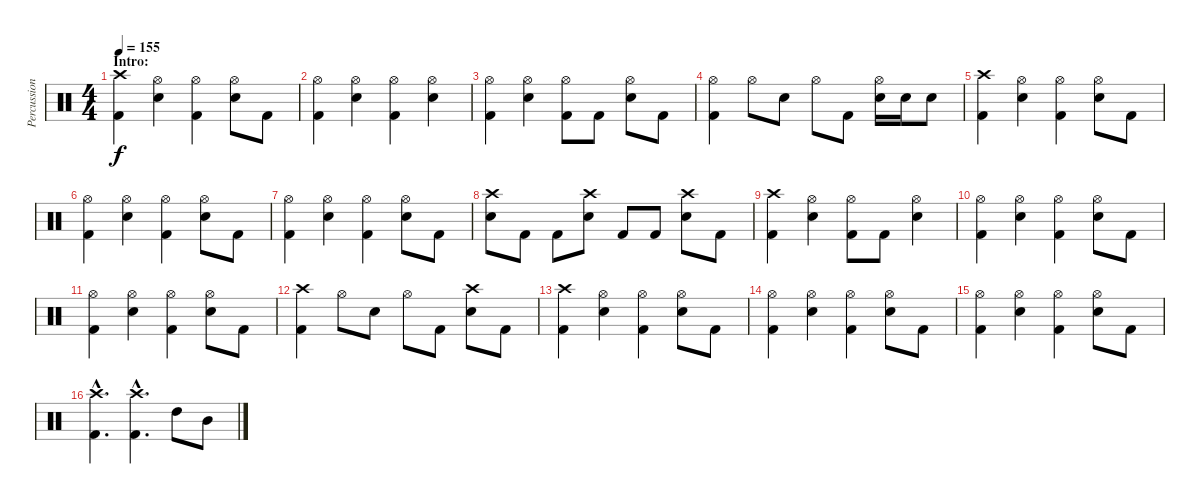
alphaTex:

\track ("Percussion" "Percussion") {instrument percussion}
\staff {score}
\articulation defaults
\ts (4 4)
\section ("" "Intro:")
\tempo 155
\clef neutral
\ks c
("Crash high (hit)" "Kick (hit) 2").4{dy f} ("Hi-Hat (open)" "Electric Snare (hit)").4 ("Hi-Hat (open)" "Kick (hit) 2").4 ("Hi-Hat (open)" "Electric Snare (hit)").8 "Kick (hit) 2".8 |
("Hi-Hat (open)" "Kick (hit) 2").4 ("Hi-Hat (open)" "Electric Snare (hit)").4 ("Hi-Hat (open)" "Kick (hit) 2").4 ("Hi-Hat (open)" "Electric Snare (hit)").4 |
("Hi-Hat (open)" "Kick (hit) 2").4 ("Hi-Hat (open)" "Electric Snare (hit)").4 ("Hi-Hat (open)" "Kick (hit) 2").8 "Kick (hit) 2".8 ("Hi-Hat (open)" "Electric Snare (hit)").8 "Kick (hit) 2".8 |
("Hi-Hat (open)" "Kick (hit) 2").4 "Hi-Hat (open)".8 "Electric Snare (hit)".8 "Hi-Hat (open)".8 "Kick (hit) 2".8 ("Hi-Hat (open)" "Electric Snare (hit)").16 "Electric Snare (hit)".16 "Electric Snare (hit)".8 |
("Crash high (hit)" "Kick (hit) 2").4 ("Hi-Hat (open)" "Electric Snare (hit)").4 ("Hi-Hat (open)" "Kick (hit) 2").4 ("Hi-Hat (open)" "Electric Snare (hit)").8 "Kick (hit) 2".8 |
("Hi-Hat (open)" "Kick (hit) 2").4 ("Hi-Hat (open)" "Electric Snare (hit)").4 ("Hi-Hat (open)" "Kick (hit) 2").4 ("Hi-Hat (open)" "Electric Snare (hit)").8 "Kick (hit) 2".8 |
("Hi-Hat (open)" "Kick (hit) 2").4 ("Hi-Hat (open)" "Electric Snare (hit)").4 ("Hi-Hat (open)" "Kick (hit) 2").4 ("Hi-Hat (open)" "Electric Snare (hit)").8 "Kick (hit) 2".8 |
("Crash high (hit)" "Electric Snare (hit)").8 "Kick (hit) 2".8 "Kick (hit) 2".8 ("Crash high (hit)" "Electric Snare (hit)").8 "Kick (hit) 2".8 "Kick (hit) 2".8 ("Crash high (hit)" "Electric Snare (hit)").8 "Kick (hit) 2".8 |
("Crash high (hit)" "Kick (hit) 2").4 ("Hi-Hat (open)" "Electric Snare (hit)").4 ("Hi-Hat (open)" "Kick (hit) 2").8 "Kick (hit) 2".8 ("Hi-Hat (open)" "Electric Snare (hit)").4 |
("Hi-Hat (open)" "Kick (hit) 2").4 ("Hi-Hat (open)" "Electric Snare (hit)").4 ("Hi-Hat (open)" "Kick (hit) 2").4 ("Hi-Hat (open)" "Electric Snare (hit)").8 "Kick (hit) 2".8 |
("Hi-Hat (open)" "Kick (hit) 2").4 ("Hi-Hat (open)" "Electric Snare (hit)").4 ("Hi-Hat (open)" "Kick (hit) 2").4 ("Hi-Hat (open)" "Electric Snare (hit)").8 "Kick (hit) 2".8 |
("Crash high (hit)" "Kick (hit) 2").4 "Hi-Hat (open)".8 "Electric Snare (hit)".8 "Hi-Hat (open)".8 "Kick (hit) 2".8 ("Crash high (hit)" "Electric Snare (hit)").8 "Kick (hit) 2".8 |
("Crash high (hit)" "Kick (hit) 2").4 ("Hi-Hat (open)" "Electric Snare (hit)").4 ("Hi-Hat (open)" "Kick (hit) 2").4 ("Hi-Hat (open)" "Electric Snare (hit)").8 "Kick (hit) 2".8 |
("Hi-Hat (open)" "Kick (hit) 2").4 ("Hi-Hat (open)" "Electric Snare (hit)").4 ("Hi-Hat (open)" "Kick (hit) 2").4 ("Hi-Hat (open)" "Electric Snare (hit)").8 "Kick (hit) 2".8 |
("Hi-Hat (open)" "Kick (hit) 2").4 ("Hi-Hat (open)" "Electric Snare (hit)").4 ("Hi-Hat (open)" "Kick (hit) 2").4 ("Hi-Hat (open)" "Electric Snare (hit)").8 "Kick (hit) 2".8 |
("Crash high (hit)"{hac} "Kick (hit) 2"{hac}).4{d} ("Crash high (hit)"{hac} "Kick (hit) 2"{hac}).4{d} "High Tom (hit)".8 "Mid Tom (hit)".8
